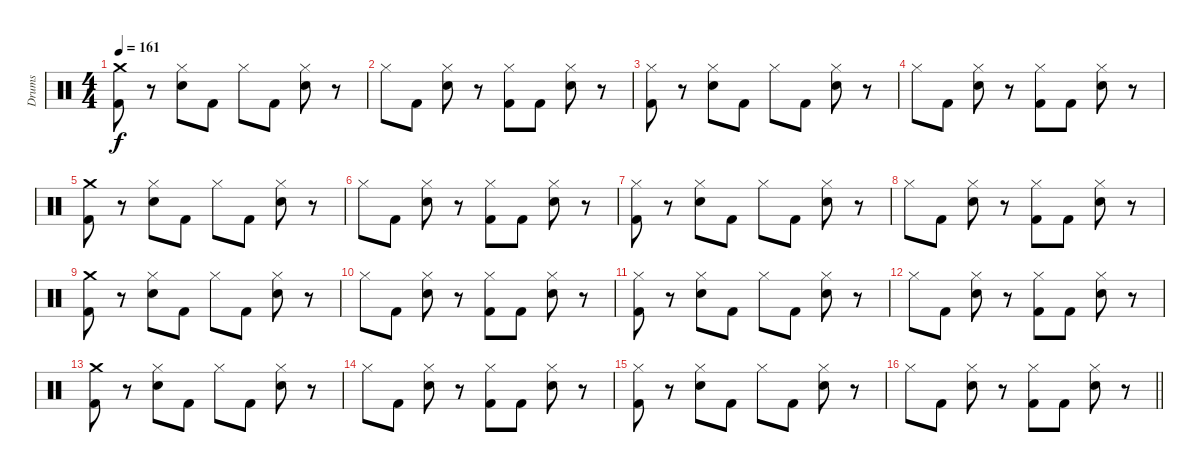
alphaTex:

\track ("Drums" "Drums") {instrument percussion}
\staff {score}
\articulation defaults
\ts (4 4)
\section ("" "")
\tempo 161
\clef neutral
\ks c
("Crash medium (hit)" "Kick (hit) 2").8{dy f} r.8 ("Hi-Hat (closed)" "Electric Snare (hit)").8 "Kick (hit) 2".8 "Hi-Hat (closed)".8 "Kick (hit) 2".8 ("Hi-Hat (closed)" "Electric Snare (hit)").8 r.8 |
"Hi-Hat (closed)".8 "Kick (hit) 2".8 ("Hi-Hat (closed)" "Electric Snare (hit)").8 r.8 ("Hi-Hat (closed)" "Kick (hit) 2").8 "Kick (hit) 2".8 ("Hi-Hat (closed)" "Electric Snare (hit)").8 r.8 |
("Hi-Hat (closed)" "Kick (hit) 2").8 r.8 ("Hi-Hat (closed)" "Electric Snare (hit)").8 "Kick (hit) 2".8 "Hi-Hat (closed)".8 "Kick (hit) 2".8 ("Hi-Hat (closed)" "Electric Snare (hit)").8 r.8 |
"Hi-Hat (closed)".8 "Kick (hit) 2".8 ("Hi-Hat (closed)" "Electric Snare (hit)").8 r.8 ("Hi-Hat (closed)" "Kick (hit) 2").8 "Kick (hit) 2".8 ("Hi-Hat (closed)" "Electric Snare (hit)").8 r.8 |
("Crash medium (hit)" "Kick (hit) 2").8 r.8 ("Hi-Hat (closed)" "Electric Snare (hit)").8 "Kick (hit) 2".8 "Hi-Hat (closed)".8 "Kick (hit) 2".8 ("Hi-Hat (closed)" "Electric Snare (hit)").8 r.8 |
"Hi-Hat (closed)".8 "Kick (hit) 2".8 ("Hi-Hat (closed)" "Electric Snare (hit)").8 r.8 ("Hi-Hat (closed)" "Kick (hit) 2").8 "Kick (hit) 2".8 ("Hi-Hat (closed)" "Electric Snare (hit)").8 r.8 |
("Hi-Hat (closed)" "Kick (hit) 2").8 r.8 ("Hi-Hat (closed)" "Electric Snare (hit)").8 "Kick (hit) 2".8 "Hi-Hat (closed)".8 "Kick (hit) 2".8 ("Hi-Hat (closed)" "Electric Snare (hit)").8 r.8 |
"Hi-Hat (closed)".8 "Kick (hit) 2".8 ("Hi-Hat (closed)" "Electric Snare (hit)").8 r.8 ("Hi-Hat (closed)" "Kick (hit) 2").8 "Kick (hit) 2".8 ("Hi-Hat (closed)" "Electric Snare (hit)").8 r.8 |
("Crash medium (hit)" "Kick (hit) 2").8 r.8 ("Hi-Hat (closed)" "Electric Snare (hit)").8 "Kick (hit) 2".8 "Hi-Hat (closed)".8 "Kick (hit) 2".8 ("Hi-Hat (closed)" "Electric Snare (hit)").8 r.8 |
"Hi-Hat (closed)".8 "Kick (hit) 2".8 ("Hi-Hat (closed)" "Electric Snare (hit)").8 r.8 ("Hi-Hat (closed)" "Kick (hit) 2").8 "Kick (hit) 2".8 ("Hi-Hat (closed)" "Electric Snare (hit)").8 r.8 |
("Hi-Hat (closed)" "Kick (hit) 2").8 r.8 ("Hi-Hat (closed)" "Electric Snare (hit)").8 "Kick (hit) 2".8 "Hi-Hat (closed)".8 "Kick (hit) 2".8 ("Hi-Hat (closed)" "Electric Snare (hit)").8 r.8 |
"Hi-Hat (closed)".8 "Kick (hit) 2".8 ("Hi-Hat (closed)" "Electric Snare (hit)").8 r.8 ("Hi-Hat (closed)" "Kick (hit) 2").8 "Kick (hit) 2".8 ("Hi-Hat (closed)" "Electric Snare (hit)").8 r.8 |
("Crash medium (hit)" "Kick (hit) 2").8 r.8 ("Hi-Hat (closed)" "Electric Snare (hit)").8 "Kick (hit) 2".8 "Hi-Hat (closed)".8 "Kick (hit) 2".8 ("Hi-Hat (closed)" "Electric Snare (hit)").8 r.8 |
"Hi-Hat (closed)".8 "Kick (hit) 2".8 ("Hi-Hat (closed)" "Electric Snare (hit)").8 r.8 ("Hi-Hat (closed)" "Kick (hit) 2").8 "Kick (hit) 2".8 ("Hi-Hat (closed)" "Electric Snare (hit)").8 r.8 |
("Hi-Hat (closed)" "Kick (hit) 2").8 r.8 ("Hi-Hat (closed)" "Electric Snare (hit)").8 "Kick (hit) 2".8 "Hi-Hat (closed)".8 "Kick (hit) 2".8 ("Hi-Hat (closed)" "Electric Snare (hit)").8 r.8 |
\barLineRight lightlight "Hi-Hat (closed)".8 "Kick (hit) 2".8
("Hi-Hat (closed)" "Electric Snare (hit)").8 r.8 ("Hi-Hat (closed)" "Kick (hit) 2").8 "Kick (hit) 2".8 ("Hi-Hat (closed)" "Electric Snare (hit)").8 r.8
